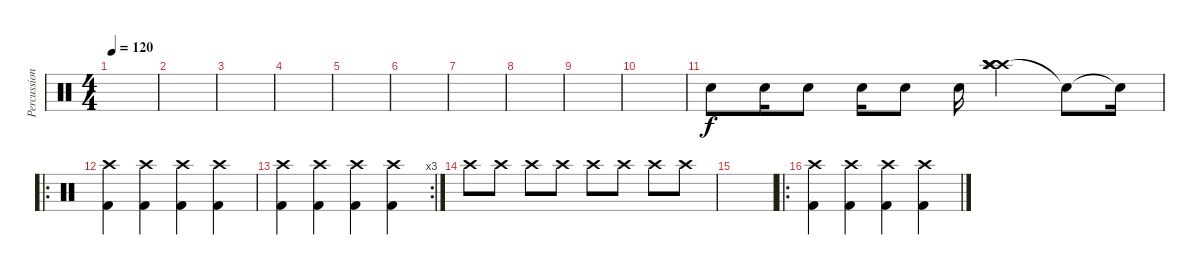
\track ("Percussion" "Percussion") {instrument percussion}
\staff {score}
\articulation defaults
\ts (4 4)
\tempo 120
\clef neutral
\ks c
|
|
|
|
|
|
|
|
|
|
"Snare (hit) 2".8 "Electric Snare (hit)".16 "Snare (hit) 2".8 "Electric Snare (hit)".16 "Snare (hit) 2".8 "Electric Snare (hit)".16 ("Crash high (hit)" "Crash high (hit)" "Crash high (hit)" "Crash high (hit)" "Splash (hit)").4 "Snare (hit)"{t}.8 "Snare (hit)"{t}.16 |
\ro
("Kick (hit) 2" "Crash high (hit)").4 ("Kick (hit) 2" "Crash high (hit)").4 ("Kick (hit) 2" "Crash high (hit)").4 ("Kick (hit) 2" "Crash high (hit)").4 |
\rc 3
("Kick (hit) 2" "Crash high (hit)").4 ("Kick (hit) 2" "Crash high (hit)").4 ("Kick (hit) 2" "Crash high (hit)").4 ("Kick (hit) 2" "Crash high (hit)").4 |
"Crash high (hit)".8 "Crash high (hit)".8 "Crash high (hit)".8 "Crash high (hit)".8 "Crash high (hit)".8 "Crash high (hit)".8 "Crash high (hit)".8 "Crash high (hit)".8 |
|
\ro
("Kick (hit) 2" "Crash high (hit)").4 ("Kick (hit) 2" "Crash high (hit)").4 ("Kick (hit) 2" "Crash high (hit)").4 ("Kick (hit) 2" "Crash high (hit)").4
